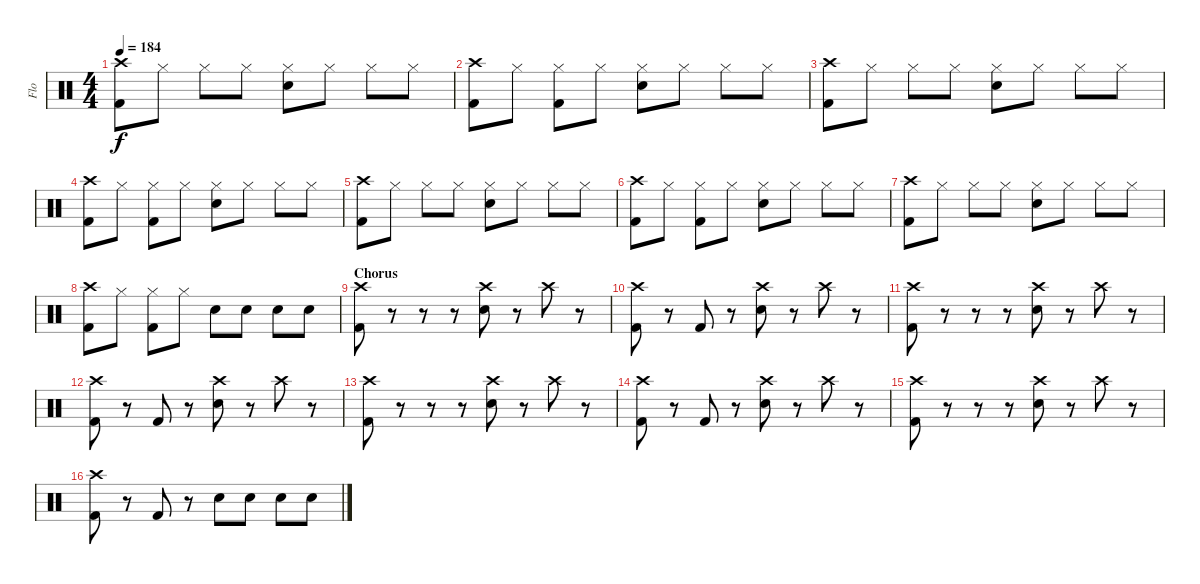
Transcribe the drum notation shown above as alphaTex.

\track ("Flo" "Flo") {instrument percussion}
\staff {score}
\articulation defaults
\ts (4 4)
\tempo 184
\clef neutral
\ks c
("Crash high (hit)" "Kick (hit) 2").8{dy f} "Hi-Hat (closed)".8 "Hi-Hat (closed)".8 "Hi-Hat (closed)".8 ("Hi-Hat (closed)" "Electric Snare (hit)").8 "Hi-Hat (closed)".8 "Hi-Hat (closed)".8 "Hi-Hat (closed)".8 |
("Crash high (hit)" "Kick (hit) 2").8 "Hi-Hat (closed)".8 ("Hi-Hat (closed)" "Kick (hit) 2").8 "Hi-Hat (closed)".8 ("Hi-Hat (closed)" "Electric Snare (hit)").8 "Hi-Hat (closed)".8 "Hi-Hat (closed)".8 "Hi-Hat (closed)".8 |
("Crash high (hit)" "Kick (hit) 2").8 "Hi-Hat (closed)".8 "Hi-Hat (closed)".8 "Hi-Hat (closed)".8 ("Hi-Hat (closed)" "Electric Snare (hit)").8 "Hi-Hat (closed)".8 "Hi-Hat (closed)".8 "Hi-Hat (closed)".8 |
("Crash high (hit)" "Kick (hit) 2").8 "Hi-Hat (closed)".8 ("Hi-Hat (closed)" "Kick (hit) 2").8 "Hi-Hat (closed)".8 ("Hi-Hat (closed)" "Electric Snare (hit)").8 "Hi-Hat (closed)".8 "Hi-Hat (closed)".8 "Hi-Hat (closed)".8 |
("Crash high (hit)" "Kick (hit) 2").8 "Hi-Hat (closed)".8 "Hi-Hat (closed)".8 "Hi-Hat (closed)".8 ("Hi-Hat (closed)" "Electric Snare (hit)").8 "Hi-Hat (closed)".8 "Hi-Hat (closed)".8 "Hi-Hat (closed)".8 |
("Crash high (hit)" "Kick (hit) 2").8 "Hi-Hat (closed)".8 ("Hi-Hat (closed)" "Kick (hit) 2").8 "Hi-Hat (closed)".8 ("Hi-Hat (closed)" "Electric Snare (hit)").8 "Hi-Hat (closed)".8 "Hi-Hat (closed)".8 "Hi-Hat (closed)".8 |
("Crash high (hit)" "Kick (hit) 2").8 "Hi-Hat (closed)".8 "Hi-Hat (closed)".8 "Hi-Hat (closed)".8 ("Hi-Hat (closed)" "Electric Snare (hit)").8 "Hi-Hat (closed)".8 "Hi-Hat (closed)".8 "Hi-Hat (closed)".8 |
("Crash high (hit)" "Kick (hit) 2").8 "Hi-Hat (closed)".8 ("Hi-Hat (closed)" "Kick (hit) 2").8 "Hi-Hat (closed)".8 "Electric Snare (hit)".8 "Electric Snare (hit)".8 "Electric Snare (hit)".8 "Electric Snare (hit)".8 |
\section ("" "Chorus")
("Crash high (hit)" "Kick (hit) 2").8 r.8 r.8 r.8 ("Crash high (hit)" "Electric Snare (hit)").8 r.8 "Crash high (hit)".8 r.8 |
("Crash high (hit)" "Kick (hit) 2").8 r.8 "Kick (hit) 2".8 r.8 ("Crash high (hit)" "Electric Snare (hit)").8 r.8 "Crash high (hit)".8 r.8 |
("Crash high (hit)" "Kick (hit) 2").8 r.8 r.8 r.8 ("Crash high (hit)" "Electric Snare (hit)").8 r.8 "Crash high (hit)".8 r.8 |
("Crash high (hit)" "Kick (hit) 2").8 r.8 "Kick (hit) 2".8 r.8 ("Crash high (hit)" "Electric Snare (hit)").8 r.8 "Crash high (hit)".8 r.8 |
("Crash high (hit)" "Kick (hit) 2").8 r.8 r.8 r.8 ("Crash high (hit)" "Electric Snare (hit)").8 r.8 "Crash high (hit)".8 r.8 |
("Crash high (hit)" "Kick (hit) 2").8 r.8 "Kick (hit) 2".8 r.8 ("Crash high (hit)" "Electric Snare (hit)").8 r.8 "Crash high (hit)".8 r.8 |
("Crash high (hit)" "Kick (hit) 2").8 r.8 r.8 r.8 ("Crash high (hit)" "Electric Snare (hit)").8 r.8 "Crash high (hit)".8 r.8 |
("Crash high (hit)" "Kick (hit) 2").8 r.8 "Kick (hit) 2".8 r.8 "Electric Snare (hit)".8 "Electric Snare (hit)".8 "Electric Snare (hit)".8 "Electric Snare (hit)".8
